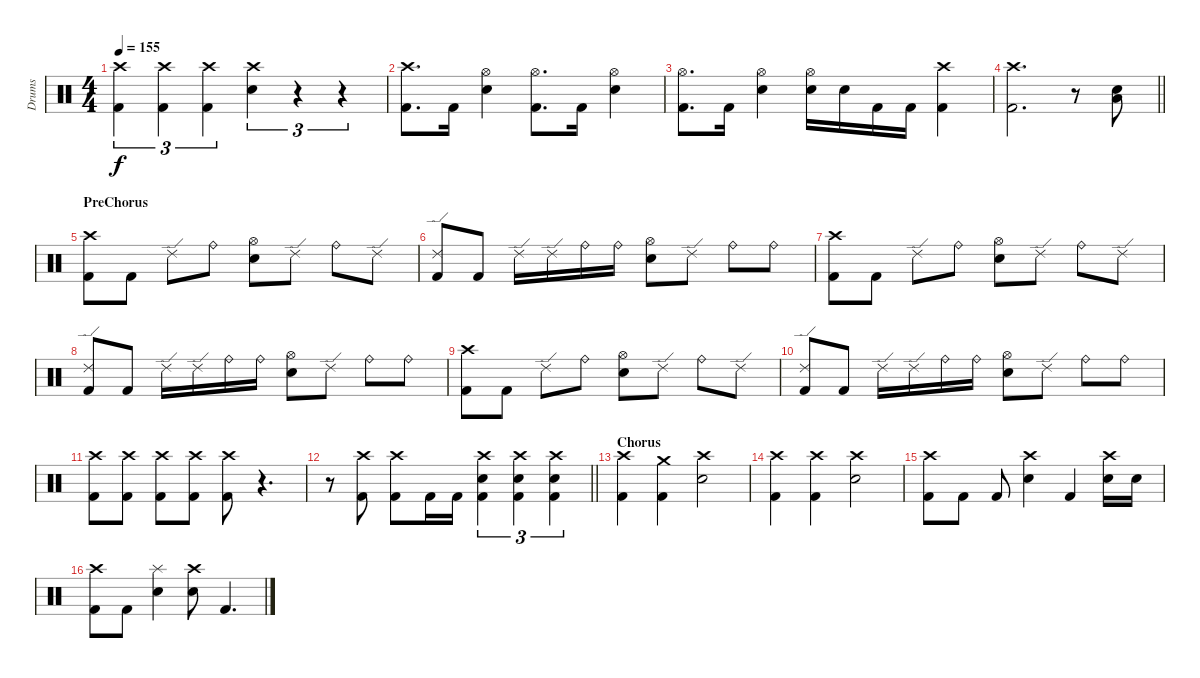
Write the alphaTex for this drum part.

\track ("Drums" "Drums") {instrument percussion}
\staff {score}
\articulation defaults
\ts (4 4)
\tempo 155
\clef neutral
\ks c
("Crash high (hit)" "Kick (hit) 2").4{tu (3 2) dy f} ("Crash high (hit)" "Kick (hit) 2").4{tu (3 2)} ("Crash high (hit)" "Kick (hit) 2").4{tu (3 2)} ("Crash high (hit)" "Snare (hit) 2").4{tu (3 2)} r.4{tu (3 2)} r.4{tu (3 2)} |
("Crash high (hit)" "Kick (hit) 2").8{d} "Kick (hit) 2".16 ("Hi-Hat (open)" "Snare (hit) 2").4 ("Hi-Hat (open)" "Kick (hit) 2").8{d} "Kick (hit) 2".16 ("Hi-Hat (open)" "Snare (hit) 2").4 |
("Hi-Hat (open)" "Kick (hit) 2").8{d} "Kick (hit) 2".16 ("Hi-Hat (open)" "Snare (hit) 2").4 ("Hi-Hat (open)" "Snare (hit) 2").16 "Snare (hit) 2".16 "Kick (hit) 2".16 "Kick (hit) 2".16 ("Crash high (hit)" "Kick (hit) 2").4 |
\barLineRight lightlight
("Crash high (hit)" "Kick (hit) 2").2{d} r.8 ("Snare (hit) 2" "Low Floor Tom (hit)").8 |
\section ("" "PreChorus")
("Crash high (hit)" "Kick (hit) 2").8 "Kick (hit) 2".8 "Ride (edge) 2".8 "Ride (bell)".8 ("Hi-Hat (open)" "Snare (hit) 2").8 "Ride (edge) 2".8 "Ride (bell)".8 "Ride (edge) 2".8 |
("Ride (edge) 2" "Kick (hit) 2").8 "Kick (hit) 2".8 "Ride (edge) 2".16 "Ride (edge) 2".16 "Ride (bell)".16 "Ride (bell)".16 ("Hi-Hat (open)" "Snare (hit) 2").8 "Ride (edge) 2".8 "Ride (bell)".8 "Ride (bell)".8 |
("Crash high (hit)" "Kick (hit) 2").8 "Kick (hit) 2".8 "Ride (edge) 2".8 "Ride (bell)".8 ("Hi-Hat (open)" "Snare (hit) 2").8 "Ride (edge) 2".8 "Ride (bell)".8 "Ride (edge) 2".8 |
("Ride (edge) 2" "Kick (hit) 2").8 "Kick (hit) 2".8 "Ride (edge) 2".16 "Ride (edge) 2".16 "Ride (bell)".16 "Ride (bell)".16 ("Hi-Hat (open)" "Snare (hit) 2").8 "Ride (edge) 2".8 "Ride (bell)".8 "Ride (bell)".8 |
("Crash high (hit)" "Kick (hit) 2").8 "Kick (hit) 2".8 "Ride (edge) 2".8 "Ride (bell)".8 ("Hi-Hat (open)" "Snare (hit) 2").8 "Ride (edge) 2".8 "Ride (bell)".8 "Ride (edge) 2".8 |
("Ride (edge) 2" "Kick (hit) 2").8 "Kick (hit) 2".8 "Ride (edge) 2".16 "Ride (edge) 2".16 "Ride (bell)".16 "Ride (bell)".16 ("Hi-Hat (open)" "Snare (hit) 2").8 "Ride (edge) 2".8 "Ride (bell)".8 "Ride (bell)".8 |
("Crash high (hit)" "Kick (hit) 2").8 ("Crash high (hit)" "Kick (hit) 2").8 ("Crash high (hit)" "Kick (hit) 2").8 ("Crash high (hit)" "Kick (hit) 2").8 ("Crash high (hit)" "Kick (hit) 2").8 r.4{d} |
\barLineRight lightlight
r.8 ("Crash high (hit)" "Kick (hit) 2").8 ("Crash high (hit)" "Kick (hit) 2").8 "Kick (hit) 2".16 "Kick (hit) 2".16 ("Crash high (hit)" "Snare (hit) 2" "Kick (hit) 2").4{tu (3 2)} ("Crash high (hit)" "Snare (hit) 2" "Kick (hit) 2").4{tu (3 2)} ("Crash high (hit)" "Snare (hit) 2" "Kick (hit) 2").4{tu (3 2)} |
\section ("" "Chorus")
("Crash high (hit)" "Kick (hit) 2").4 ("Crash medium (hit)" "Kick (hit) 2").4 ("Crash high (hit)" "Snare (hit) 2").2 |
("Crash high (hit)" "Kick (hit) 2").4 ("Crash high (hit)" "Kick (hit) 2").4 ("Crash high (hit)" "Snare (hit) 2").2 |
("Crash high (hit)" "Kick (hit) 2").8 "Kick (hit) 2".8 "Kick (hit) 2".8 ("Crash high (hit)" "Snare (hit) 2").4 "Kick (hit) 2".4 ("Crash high (hit)" "Snare (hit) 2").16 "Snare (hit) 2".16 |
("Crash high (hit)" "Kick (hit) 2").8 "Kick (hit) 2".8 ("Splash (hit)" "Snare (hit) 2").4 ("Crash high (hit)" "Snare (hit) 2").8 "Kick (hit) 2".4{d}
